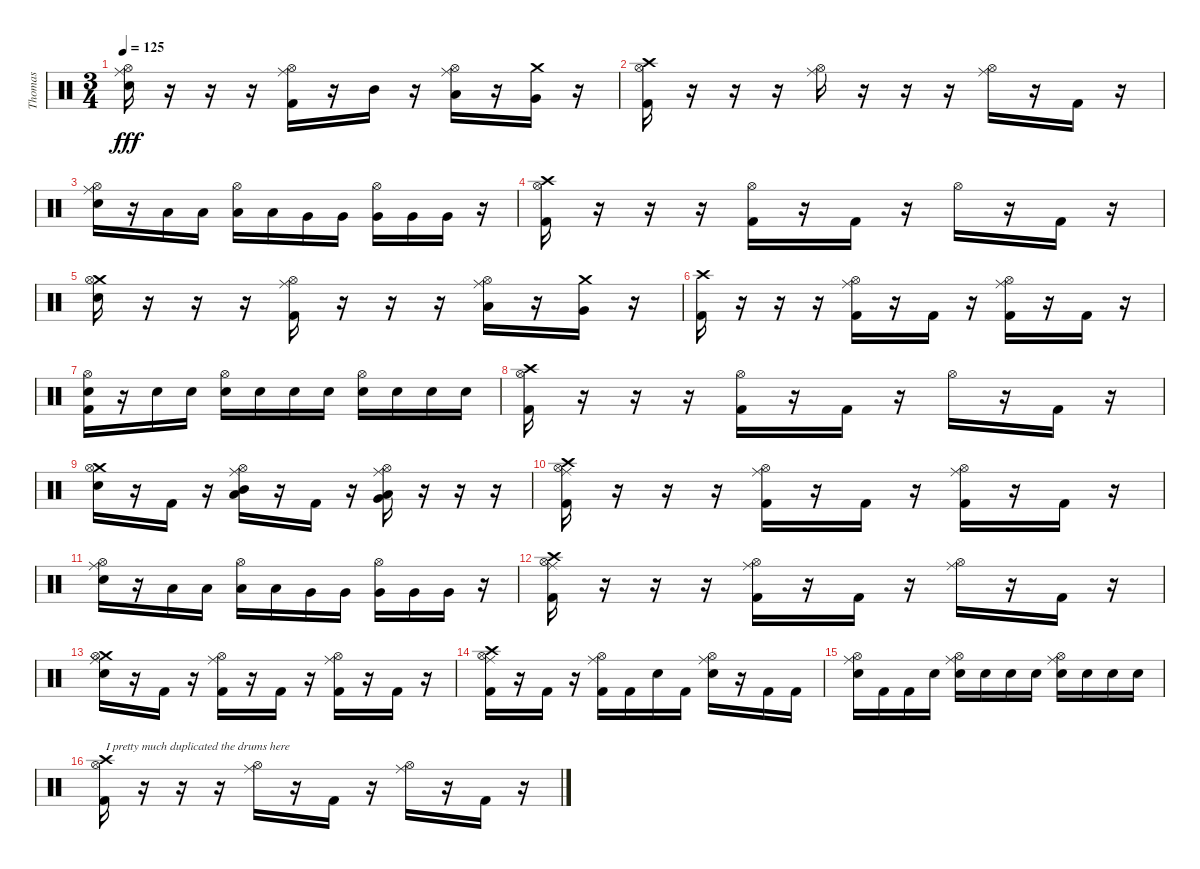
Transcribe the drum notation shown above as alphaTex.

\track ("Thomas " "Thomas ") {instrument percussion}
\staff {score}
\articulation defaults
\ts (3 4)
\tempo 125
\clef neutral
\ks c
("Ride (middle)" "Hi-Hat (open)" "Electric Snare (hit)").16{dy fff} r.16 r.16 r.16 ("Ride (middle)" "Hi-Hat (open)" "Kick (hit) 2").16 r.16 "Mid Tom (hit)".16 r.16 ("Ride (middle)" "Hi-Hat (open)" "Low Tom (hit)").16 r.16 ("Crash medium (hit)" "Very Low Tom (hit)").16 r.16 |
("Crash high (hit)" "Hi-Hat (open)" "Kick (hit) 2").16 r.16 r.16 r.16 ("Ride (middle)" "Hi-Hat (open)").16 r.16 r.16 r.16 ("Ride (middle)" "Hi-Hat (open)").16 r.16 "Kick (hit) 2".16 r.16 |
("Ride (middle)" "Hi-Hat (open)" "Electric Snare (hit)").16 r.16 "Low Tom (hit)".16 "Low Tom (hit)".16 ("Hi-Hat (open)" "Low Tom (hit)").16 "Low Tom (hit)".16 "Very Low Tom (hit)".16 "Very Low Tom (hit)".16 ("Hi-Hat (open)" "Very Low Tom (hit)").16 "Very Low Tom (hit)".16 "Very Low Tom (hit)".16 r.16 |
("Crash high (hit)" "Hi-Hat (open)" "Kick (hit) 2").16 r.16 r.16 r.16 ("Hi-Hat (open)" "Kick (hit) 2").16 r.16 "Kick (hit) 2".16 r.16 "Hi-Hat (open)".16 r.16 "Kick (hit) 2".16 r.16 |
("Crash medium (hit)" "Hi-Hat (open)" "Electric Snare (hit)").16 r.16 r.16 r.16 ("Ride (middle)" "Hi-Hat (open)" "Kick (hit) 2").16 r.16 r.16 r.16 ("Ride (middle)" "Hi-Hat (open)" "Low Tom (hit)").16 r.16 ("Crash medium (hit)" "Very Low Tom (hit)").16 r.16 |
("Crash high (hit)" "Kick (hit) 2").16 r.16 r.16 r.16 ("Hi-Hat (open)" "Ride (middle)" "Kick (hit) 2").16 r.16 "Kick (hit) 2".16 r.16 ("Hi-Hat (open)" "Ride (middle)" "Kick (hit) 2").16 r.16 "Kick (hit) 2".16 r.16 |
("Hi-Hat (open)" "Electric Snare (hit)" "Kick (hit) 2").16 r.16 "Electric Snare (hit)".16 "Electric Snare (hit)".16 ("Hi-Hat (open)" "Electric Snare (hit)").16 "Electric Snare (hit)".16 "Electric Snare (hit)".16 "Electric Snare (hit)".16 ("Hi-Hat (open)" "Electric Snare (hit)").16 "Electric Snare (hit)".16 "Electric Snare (hit)".16 "Electric Snare (hit)".16 |
("Crash high (hit)" "Hi-Hat (open)" "Kick (hit) 2").16 r.16 r.16 r.16 ("Hi-Hat (open)" "Kick (hit) 2").16 r.16 "Kick (hit) 2".16 r.16 "Hi-Hat (open)".16 r.16 "Kick (hit) 2".16 r.16 |
("Crash medium (hit)" "Hi-Hat (open)" "Electric Snare (hit)").16 r.16 "Kick (hit) 2".16 r.16 ("Ride (middle)" "Hi-Hat (open)" "Mid Tom (hit)" "Low Tom (hit)").16 r.16 "Kick (hit) 2".16 r.16 ("Ride (middle)" "Hi-Hat (open)" "Low Tom (hit)" "Very Low Tom (hit)").16 r.16 r.16 r.16 |
("Crash high (hit)" "Ride (middle)" "Hi-Hat (open)" "Kick (hit) 2").16 r.16 r.16 r.16 ("Ride (middle)" "Hi-Hat (open)" "Kick (hit) 2").16 r.16 "Kick (hit) 2".16 r.16 ("Ride (middle)" "Hi-Hat (open)" "Kick (hit) 2").16 r.16 "Kick (hit) 2".16 r.16 |
("Ride (middle)" "Hi-Hat (open)" "Electric Snare (hit)").16 r.16 "Low Tom (hit)".16 "Low Tom (hit)".16 ("Hi-Hat (open)" "Low Tom (hit)").16 "Low Tom (hit)".16 "Very Low Tom (hit)".16 "Very Low Tom (hit)".16 ("Hi-Hat (open)" "Very Low Tom (hit)").16 "Very Low Tom (hit)".16 "Very Low Tom (hit)".16 r.16 |
("Crash high (hit)" "Ride (middle)" "Hi-Hat (open)" "Kick (hit) 2").16 r.16 r.16 r.16 ("Ride (middle)" "Hi-Hat (open)" "Kick (hit) 2").16 r.16 "Kick (hit) 2".16 r.16 ("Ride (middle)" "Hi-Hat (open)").16 r.16 "Kick (hit) 2".16 r.16 |
("Crash medium (hit)" "Ride (middle)" "Hi-Hat (open)" "Electric Snare (hit)").16 r.16 "Kick (hit) 2".16 r.16 ("Ride (middle)" "Hi-Hat (open)" "Kick (hit) 2").16 r.16 "Kick (hit) 2".16 r.16 ("Ride (middle)" "Hi-Hat (open)" "Kick (hit) 2").16 r.16 "Kick (hit) 2".16 r.16 |
("Crash high (hit)" "Ride (middle)" "Hi-Hat (open)" "Kick (hit) 2").16 r.16 "Kick (hit) 2".16 r.16 ("Ride (middle)" "Hi-Hat (open)" "Kick (hit) 2").16 "Kick (hit) 2".16 "Electric Snare (hit)".16 "Kick (hit) 2".16 ("Ride (middle)" "Hi-Hat (open)" "Electric Snare (hit)").16 r.16 "Kick (hit) 2".16 "Kick (hit) 2".16 |
("Ride (middle)" "Hi-Hat (open)" "Electric Snare (hit)").16 "Kick (hit) 2".16 "Kick (hit) 2".16 "Electric Snare (hit)".16 ("Ride (middle)" "Hi-Hat (open)" "Electric Snare (hit)").16 "Electric Snare (hit)".16 "Electric Snare (hit)".16 "Electric Snare (hit)".16 ("Ride (middle)" "Hi-Hat (open)" "Electric Snare (hit)").16 "Electric Snare (hit)".16 "Electric Snare (hit)".16 "Electric Snare (hit)".16 |
("Crash high (hit)" "Hi-Hat (open)" "Kick (hit) 2").16{txt "I pretty much duplicated the drums here"} r.16 r.16 r.16 ("Ride (middle)" "Hi-Hat (open)").16 r.16 "Kick (hit) 2".16 r.16 ("Ride (middle)" "Hi-Hat (open)").16 r.16 "Kick (hit) 2".16 r.16
